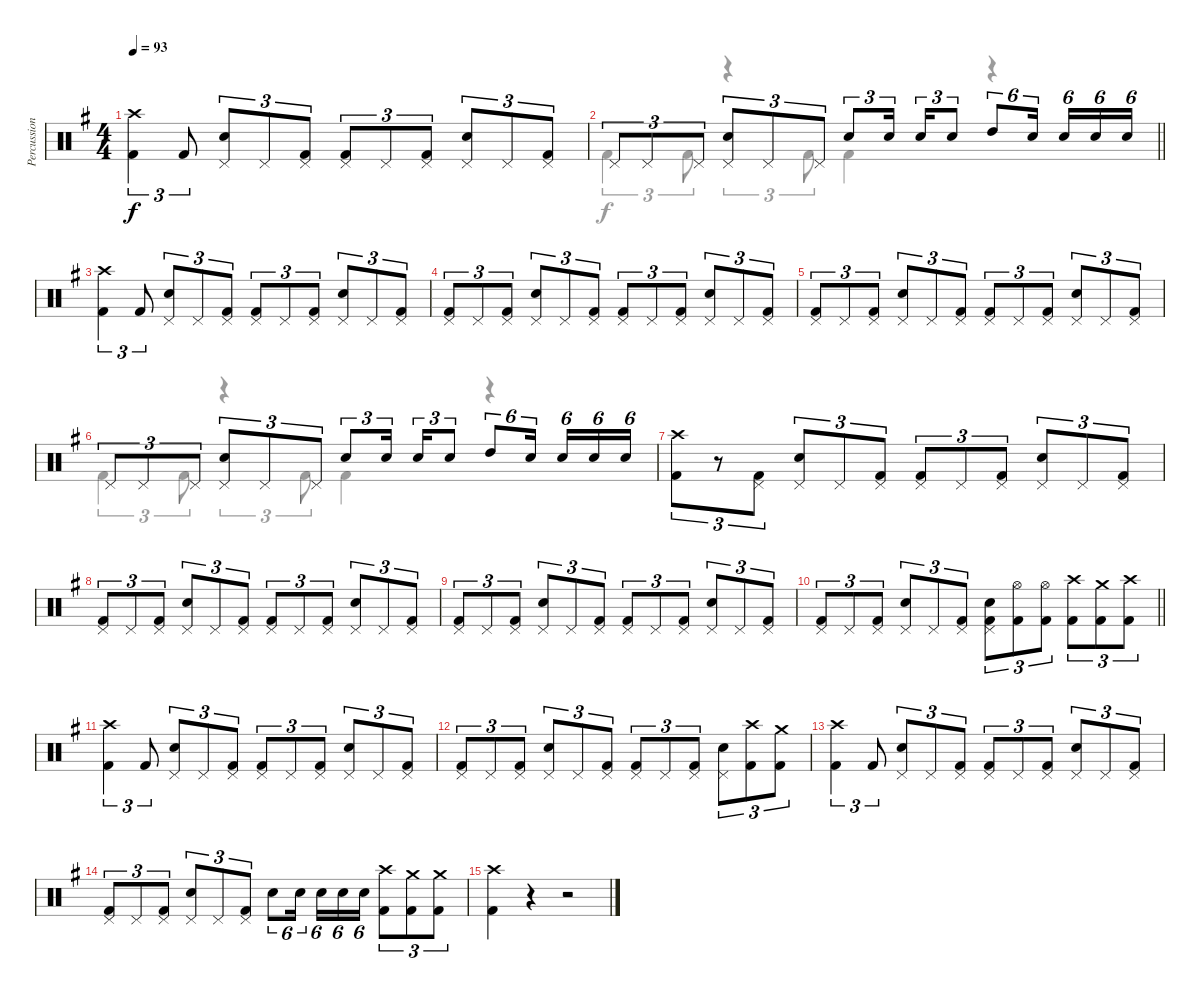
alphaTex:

\track ("Percussion" "Percussion") {instrument percussion}
\staff {score}
\articulation defaults
\voice
\ts (4 4)
\tempo 93
\clef neutral
\ks g
("Crash high (hit)" "Kick (hit) 2").4{tu (3 2) dy f} "Kick (hit) 2".8{tu (3 2)} ("Pedal Hi-Hat (hit)" "Electric Snare (hit)").8{tu (3 2)} "Pedal Hi-Hat (hit)".8{tu (3 2)} ("Pedal Hi-Hat (hit)" "Kick (hit) 2").8{tu (3 2)} ("Pedal Hi-Hat (hit)" "Kick (hit) 2").8{tu (3 2)} "Pedal Hi-Hat (hit)".8{tu (3 2)} ("Pedal Hi-Hat (hit)" "Kick (hit) 2").8{tu (3 2)} ("Pedal Hi-Hat (hit)" "Electric Snare (hit)").8{tu (3 2)} "Pedal Hi-Hat (hit)".8{tu (3 2)} ("Pedal Hi-Hat (hit)" "Kick (hit) 2").8{tu (3 2)} |
\barLineRight lightlight "Pedal Hi-Hat (hit)".8{tu (3 2)} "Pedal Hi-Hat (hit)".8{tu (3 2)} "Pedal Hi-Hat (hit)".8{tu (3 2)}
("Pedal Hi-Hat (hit)" "Electric Snare (hit)").8{tu (3 2)} "Pedal Hi-Hat (hit)".8{tu (3 2)} "Pedal Hi-Hat (hit)".8{tu (3 2)} "Electric Snare (hit)".8{tu (3 2)} "Electric Snare (hit)".16{tu (3 2) beam splitsecondary} "Electric Snare (hit)".16{tu (3 2)} "Electric Snare (hit)".8{tu (3 2)} "High Tom (hit)".8{tu (6 4)} "Electric Snare (hit)".16{tu (6 4) beam splitsecondary} "Electric Snare (hit)".16{tu (6 4)} "Electric Snare (hit)".16{tu (6 4)} "Electric Snare (hit)".16{tu (6 4)} |
("Crash high (hit)" "Kick (hit) 2").4{tu (3 2)} "Kick (hit) 2".8{tu (3 2)} ("Pedal Hi-Hat (hit)" "Electric Snare (hit)").8{tu (3 2)} "Pedal Hi-Hat (hit)".8{tu (3 2)} ("Pedal Hi-Hat (hit)" "Kick (hit) 2").8{tu (3 2)} ("Pedal Hi-Hat (hit)" "Kick (hit) 2").8{tu (3 2)} "Pedal Hi-Hat (hit)".8{tu (3 2)} ("Pedal Hi-Hat (hit)" "Kick (hit) 2").8{tu (3 2)} ("Pedal Hi-Hat (hit)" "Electric Snare (hit)").8{tu (3 2)} "Pedal Hi-Hat (hit)".8{tu (3 2)} ("Pedal Hi-Hat (hit)" "Kick (hit) 2").8{tu (3 2)} |
("Pedal Hi-Hat (hit)" "Kick (hit) 2").8{tu (3 2)} "Pedal Hi-Hat (hit)".8{tu (3 2)} ("Pedal Hi-Hat (hit)" "Kick (hit) 2").8{tu (3 2)} ("Pedal Hi-Hat (hit)" "Electric Snare (hit)").8{tu (3 2)} "Pedal Hi-Hat (hit)".8{tu (3 2)} ("Pedal Hi-Hat (hit)" "Kick (hit) 2").8{tu (3 2)} ("Pedal Hi-Hat (hit)" "Kick (hit) 2").8{tu (3 2)} "Pedal Hi-Hat (hit)".8{tu (3 2)} ("Pedal Hi-Hat (hit)" "Kick (hit) 2").8{tu (3 2)} ("Pedal Hi-Hat (hit)" "Electric Snare (hit)").8{tu (3 2)} "Pedal Hi-Hat (hit)".8{tu (3 2)} ("Pedal Hi-Hat (hit)" "Kick (hit) 2").8{tu (3 2)} |
("Pedal Hi-Hat (hit)" "Kick (hit) 2").8{tu (3 2)} "Pedal Hi-Hat (hit)".8{tu (3 2)} ("Pedal Hi-Hat (hit)" "Kick (hit) 2").8{tu (3 2)} ("Pedal Hi-Hat (hit)" "Electric Snare (hit)").8{tu (3 2)} "Pedal Hi-Hat (hit)".8{tu (3 2)} ("Pedal Hi-Hat (hit)" "Kick (hit) 2").8{tu (3 2)} ("Pedal Hi-Hat (hit)" "Kick (hit) 2").8{tu (3 2)} "Pedal Hi-Hat (hit)".8{tu (3 2)} ("Pedal Hi-Hat (hit)" "Kick (hit) 2").8{tu (3 2)} ("Pedal Hi-Hat (hit)" "Electric Snare (hit)").8{tu (3 2)} "Pedal Hi-Hat (hit)".8{tu (3 2)} ("Pedal Hi-Hat (hit)" "Kick (hit) 2").8{tu (3 2)} |
"Pedal Hi-Hat (hit)".8{tu (3 2)} "Pedal Hi-Hat (hit)".8{tu (3 2)} "Pedal Hi-Hat (hit)".8{tu (3 2)} ("Pedal Hi-Hat (hit)" "Electric Snare (hit)").8{tu (3 2)} "Pedal Hi-Hat (hit)".8{tu (3 2)} "Pedal Hi-Hat (hit)".8{tu (3 2)} "Electric Snare (hit)".8{tu (3 2)} "Electric Snare (hit)".16{tu (3 2) beam splitsecondary} "Electric Snare (hit)".16{tu (3 2)} "Electric Snare (hit)".8{tu (3 2)} "High Tom (hit)".8{tu (6 4)} "Electric Snare (hit)".16{tu (6 4) beam splitsecondary} "Electric Snare (hit)".16{tu (6 4)} "Electric Snare (hit)".16{tu (6 4)} "Electric Snare (hit)".16{tu (6 4)} |
("Crash high (hit)" "Kick (hit) 2").8{tu (3 2)} r.8{tu (3 2)} ("Pedal Hi-Hat (hit)" "Kick (hit) 2").8{tu (3 2)} ("Pedal Hi-Hat (hit)" "Electric Snare (hit)").8{tu (3 2)} "Pedal Hi-Hat (hit)".8{tu (3 2)} ("Pedal Hi-Hat (hit)" "Kick (hit) 2").8{tu (3 2)} ("Pedal Hi-Hat (hit)" "Kick (hit) 2").8{tu (3 2)} "Pedal Hi-Hat (hit)".8{tu (3 2)} ("Pedal Hi-Hat (hit)" "Kick (hit) 2").8{tu (3 2)} ("Pedal Hi-Hat (hit)" "Electric Snare (hit)").8{tu (3 2)} "Pedal Hi-Hat (hit)".8{tu (3 2)} ("Pedal Hi-Hat (hit)" "Kick (hit) 2").8{tu (3 2)} |
("Pedal Hi-Hat (hit)" "Kick (hit) 2").8{tu (3 2)} "Pedal Hi-Hat (hit)".8{tu (3 2)} ("Pedal Hi-Hat (hit)" "Kick (hit) 2").8{tu (3 2)} ("Pedal Hi-Hat (hit)" "Electric Snare (hit)").8{tu (3 2)} "Pedal Hi-Hat (hit)".8{tu (3 2)} ("Pedal Hi-Hat (hit)" "Kick (hit) 2").8{tu (3 2)} ("Pedal Hi-Hat (hit)" "Kick (hit) 2").8{tu (3 2)} "Pedal Hi-Hat (hit)".8{tu (3 2)} ("Pedal Hi-Hat (hit)" "Kick (hit) 2").8{tu (3 2)} ("Pedal Hi-Hat (hit)" "Electric Snare (hit)").8{tu (3 2)} "Pedal Hi-Hat (hit)".8{tu (3 2)} ("Pedal Hi-Hat (hit)" "Kick (hit) 2").8{tu (3 2)} |
("Pedal Hi-Hat (hit)" "Kick (hit) 2").8{tu (3 2)} "Pedal Hi-Hat (hit)".8{tu (3 2)} ("Pedal Hi-Hat (hit)" "Kick (hit) 2").8{tu (3 2)} ("Pedal Hi-Hat (hit)" "Electric Snare (hit)").8{tu (3 2)} "Pedal Hi-Hat (hit)".8{tu (3 2)} ("Pedal Hi-Hat (hit)" "Kick (hit) 2").8{tu (3 2)} ("Pedal Hi-Hat (hit)" "Kick (hit) 2").8{tu (3 2)} "Pedal Hi-Hat (hit)".8{tu (3 2)} ("Pedal Hi-Hat (hit)" "Kick (hit) 2").8{tu (3 2)} ("Pedal Hi-Hat (hit)" "Electric Snare (hit)").8{tu (3 2)} "Pedal Hi-Hat (hit)".8{tu (3 2)} ("Pedal Hi-Hat (hit)" "Kick (hit) 2").8{tu (3 2)} |
\barLineRight lightlight
("Pedal Hi-Hat (hit)" "Kick (hit) 2").8{tu (3 2)} "Pedal Hi-Hat (hit)".8{tu (3 2)} ("Pedal Hi-Hat (hit)" "Kick (hit) 2").8{tu (3 2)} ("Pedal Hi-Hat (hit)" "Electric Snare (hit)").8{tu (3 2)} "Pedal Hi-Hat (hit)".8{tu (3 2)} ("Pedal Hi-Hat (hit)" "Kick (hit) 2").8{tu (3 2)} ("Pedal Hi-Hat (hit)" "Electric Snare (hit)" "Kick (hit) 2").8{tu (3 2)} ("Hi-Hat (open)" "Kick (hit) 2").8{tu (3 2)} ("Hi-Hat (open)" "Kick (hit) 2").8{tu (3 2)} ("Crash high (hit)" "Kick (hit) 2").8{tu (3 2)} ("Crash medium (hit)" "Kick (hit) 2").8{tu (3 2)} ("Crash high (hit)" "Kick (hit) 2").8{tu (3 2)} |
("Crash high (hit)" "Kick (hit) 2").4{tu (3 2)} "Kick (hit) 2".8{tu (3 2)} ("Pedal Hi-Hat (hit)" "Electric Snare (hit)").8{tu (3 2)} "Pedal Hi-Hat (hit)".8{tu (3 2)} ("Pedal Hi-Hat (hit)" "Kick (hit) 2").8{tu (3 2)} ("Pedal Hi-Hat (hit)" "Kick (hit) 2").8{tu (3 2)} "Pedal Hi-Hat (hit)".8{tu (3 2)} ("Pedal Hi-Hat (hit)" "Kick (hit) 2").8{tu (3 2)} ("Pedal Hi-Hat (hit)" "Electric Snare (hit)").8{tu (3 2)} "Pedal Hi-Hat (hit)".8{tu (3 2)} ("Pedal Hi-Hat (hit)" "Kick (hit) 2").8{tu (3 2)} |
("Pedal Hi-Hat (hit)" "Kick (hit) 2").8{tu (3 2)} "Pedal Hi-Hat (hit)".8{tu (3 2)} ("Pedal Hi-Hat (hit)" "Kick (hit) 2").8{tu (3 2)} ("Pedal Hi-Hat (hit)" "Electric Snare (hit)").8{tu (3 2)} "Pedal Hi-Hat (hit)".8{tu (3 2)} ("Pedal Hi-Hat (hit)" "Kick (hit) 2").8{tu (3 2)} ("Pedal Hi-Hat (hit)" "Kick (hit) 2").8{tu (3 2)} "Pedal Hi-Hat (hit)".8{tu (3 2)} ("Pedal Hi-Hat (hit)" "Kick (hit) 2").8{tu (3 2)} ("Pedal Hi-Hat (hit)" "Electric Snare (hit)").8{tu (3 2)} ("Crash high (hit)" "Kick (hit) 2").8{tu (3 2)} ("Crash medium (hit)" "Kick (hit) 2").8{tu (3 2)} |
("Crash high (hit)" "Kick (hit) 2").4{tu (3 2)} "Kick (hit) 2".8{tu (3 2)} ("Pedal Hi-Hat (hit)" "Electric Snare (hit)").8{tu (3 2)} "Pedal Hi-Hat (hit)".8{tu (3 2)} ("Pedal Hi-Hat (hit)" "Kick (hit) 2").8{tu (3 2)} ("Pedal Hi-Hat (hit)" "Kick (hit) 2").8{tu (3 2)} "Pedal Hi-Hat (hit)".8{tu (3 2)} ("Pedal Hi-Hat (hit)" "Kick (hit) 2").8{tu (3 2)} ("Pedal Hi-Hat (hit)" "Electric Snare (hit)").8{tu (3 2)} "Pedal Hi-Hat (hit)".8{tu (3 2)} ("Pedal Hi-Hat (hit)" "Kick (hit) 2").8{tu (3 2)} |
("Pedal Hi-Hat (hit)" "Kick (hit) 2").8{tu (3 2)} "Pedal Hi-Hat (hit)".8{tu (3 2)} ("Pedal Hi-Hat (hit)" "Kick (hit) 2").8{tu (3 2)} ("Pedal Hi-Hat (hit)" "Electric Snare (hit)").8{tu (3 2)} "Pedal Hi-Hat (hit)".8{tu (3 2)} ("Pedal Hi-Hat (hit)" "Kick (hit) 2").8{tu (3 2)} "Electric Snare (hit)".8{tu (6 4)} "Electric Snare (hit)".16{tu (6 4) beam splitsecondary} "Electric Snare (hit)".16{tu (6 4)} "Electric Snare (hit)".16{tu (6 4)} "Electric Snare (hit)".16{tu (6 4)} ("Crash high (hit)" "Kick (hit) 2").8{tu (3 2)} ("Crash medium (hit)" "Kick (hit) 2").8{tu (3 2)} ("Crash medium (hit)" "Kick (hit) 2").8{tu (3 2)} |
("Crash high (hit)" "Kick (hit) 2").4 r.4 r.2
\voice
\clef neutral
\ottava regular
\simile none
\ks g
|
\barLineRight lightlight "Kick (hit) 2".4{tu (3 2)} "Kick (hit) 2".8{tu (3 2)}
r.4{tu (3 2)} "Kick (hit) 2".8{tu (3 2)} "Kick (hit) 2".4 r.4 |
|
|
|
"Kick (hit) 2".4{tu (3 2)} "Kick (hit) 2".8{tu (3 2)} r.4{tu (3 2)} "Kick (hit) 2".8{tu (3 2)} "Kick (hit) 2".4 r.4 |
|
|
|
\barLineRight lightlight
|
|
|
|
|
